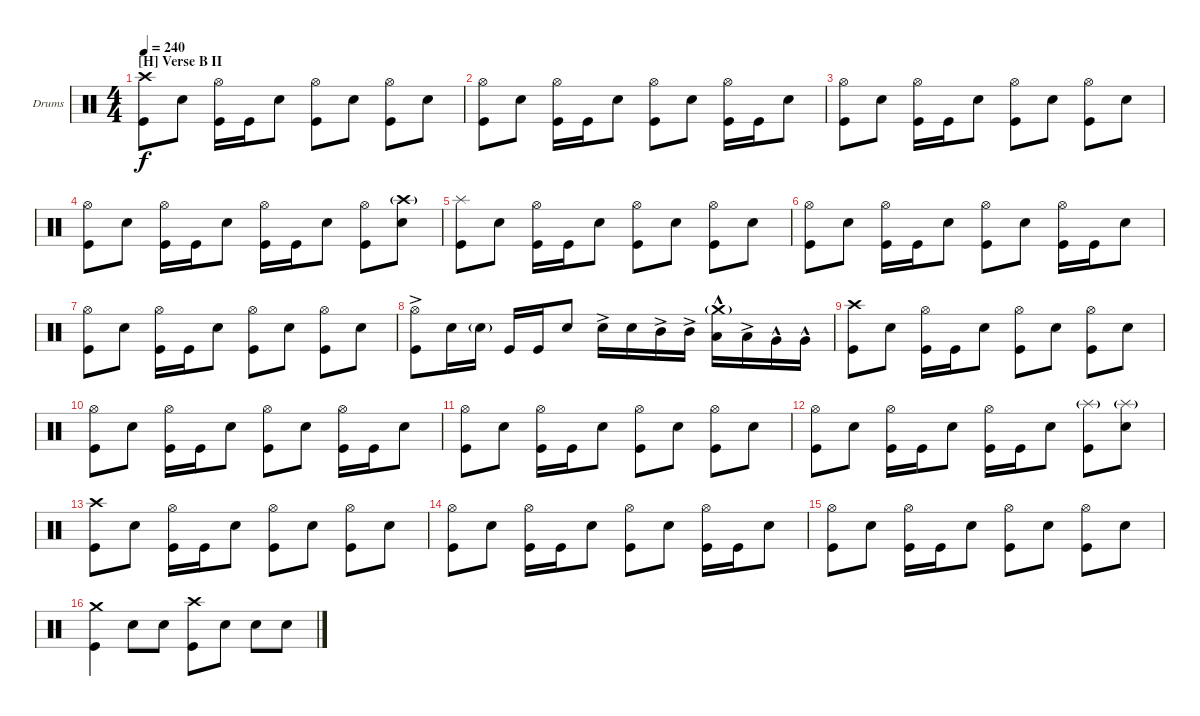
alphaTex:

\defaultSystemsLayout 4
\bracketExtendMode groupsimilarinstruments
\firstSystemTrackNameOrientation horizontal
\otherSystemsTrackNameOrientation horizontal
\track ("Drumkit" "Drums") {instrument percussion}
\staff {score}
\articulation defaults
\ts (4 4)
\section ("H" "Verse B II")
\tempo 240
\clef neutral
\ks c
("Kick (hit)" "Crash high (hit)").8{dy f} "Snare (hit) 2".8 ("Kick (hit)" "Hi-Hat (open)").16 "Kick (hit)".16 "Snare (hit) 2".8 ("Kick (hit)" "Hi-Hat (open)").8 "Snare (hit) 2".8 ("Kick (hit)" "Hi-Hat (open)").8 "Snare (hit) 2".8 |
("Kick (hit)" "Hi-Hat (open)").8 "Snare (hit) 2".8 ("Kick (hit)" "Hi-Hat (open)").16 "Kick (hit)".16 "Snare (hit) 2".8 ("Kick (hit)" "Hi-Hat (open)").8 "Snare (hit) 2".8 ("Kick (hit)" "Hi-Hat (open)").16 "Kick (hit)".16 "Snare (hit) 2".8 |
("Kick (hit)" "Hi-Hat (open)").8 "Snare (hit) 2".8 ("Kick (hit)" "Hi-Hat (open)").16 "Kick (hit)".16 "Snare (hit) 2".8 ("Kick (hit)" "Hi-Hat (open)").8 "Snare (hit) 2".8 ("Kick (hit)" "Hi-Hat (open)").8 "Snare (hit) 2".8 |
("Kick (hit)" "Hi-Hat (open)").8 "Snare (hit) 2".8 ("Kick (hit)" "Hi-Hat (open)").16 "Kick (hit)".16 "Snare (hit) 2".8 ("Kick (hit)" "Hi-Hat (open)").16 "Kick (hit)".16 "Snare (hit) 2".8 ("Kick (hit)" "Hi-Hat (open)").8 ("Snare (hit) 2" "Crash high (hit)"{g}).8 |
("Kick (hit)" "Splash (hit)").8 "Snare (hit) 2".8 ("Kick (hit)" "Hi-Hat (open)").16 "Kick (hit)".16 "Snare (hit) 2".8 ("Kick (hit)" "Hi-Hat (open)").8 "Snare (hit) 2".8 ("Kick (hit)" "Hi-Hat (open)").8 "Snare (hit) 2".8 |
("Kick (hit)" "Hi-Hat (open)").8 "Snare (hit) 2".8 ("Kick (hit)" "Hi-Hat (open)").16 "Kick (hit)".16 "Snare (hit) 2".8 ("Kick (hit)" "Hi-Hat (open)").8 "Snare (hit) 2".8 ("Kick (hit)" "Hi-Hat (open)").16 "Kick (hit)".16 "Snare (hit) 2".8 |
("Kick (hit)" "Hi-Hat (open)").8 "Snare (hit) 2".8 ("Kick (hit)" "Hi-Hat (open)").16 "Kick (hit)".16 "Snare (hit) 2".8 ("Kick (hit)" "Hi-Hat (open)").8 "Snare (hit) 2".8 ("Kick (hit)" "Hi-Hat (open)").8 "Snare (hit) 2".8 |
("Kick (hit)" "Hi-Hat (open)"{ac}).8 "Snare (hit) 2".16 "Snare (hit) 2"{g}.16 "Kick (hit)".16 "Kick (hit)".16 "Snare (hit) 2".8 "Snare (hit) 2"{ac}.16 "Snare (hit) 2".16 "Mid Tom (hit)"{ac}.16 "Mid Tom (hit)"{ac}.16 ("Low Tom (hit)"{hac} "Crash medium (hit)"{g}).16 "Low Tom (hit)"{ac}.16 "Very Low Tom (hit)"{hac}.16 "Very Low Tom (hit)"{hac}.16 |
("Kick (hit)" "Crash high (hit)").8 "Snare (hit) 2".8 ("Kick (hit)" "Hi-Hat (open)").16 "Kick (hit)".16 "Snare (hit) 2".8 ("Kick (hit)" "Hi-Hat (open)").8 "Snare (hit) 2".8 ("Kick (hit)" "Hi-Hat (open)").8 "Snare (hit) 2".8 |
("Kick (hit)" "Hi-Hat (open)").8 "Snare (hit) 2".8 ("Kick (hit)" "Hi-Hat (open)").16 "Kick (hit)".16 "Snare (hit) 2".8 ("Kick (hit)" "Hi-Hat (open)").8 "Snare (hit) 2".8 ("Kick (hit)" "Hi-Hat (open)").16 "Kick (hit)".16 "Snare (hit) 2".8 |
("Kick (hit)" "Hi-Hat (open)").8 "Snare (hit) 2".8 ("Kick (hit)" "Hi-Hat (open)").16 "Kick (hit)".16 "Snare (hit) 2".8 ("Kick (hit)" "Hi-Hat (open)").8 "Snare (hit) 2".8 ("Kick (hit)" "Hi-Hat (open)").8 "Snare (hit) 2".8 |
("Kick (hit)" "Hi-Hat (open)").8 "Snare (hit) 2".8 ("Kick (hit)" "Hi-Hat (open)").16 "Kick (hit)".16 "Snare (hit) 2".8 ("Kick (hit)" "Hi-Hat (open)").16 "Kick (hit)".16 "Snare (hit) 2".8 ("Kick (hit)" "Splash (hit)"{g}).8 ("Snare (hit) 2" "Splash (hit)"{g}).8 |
("Kick (hit)" "Crash high (hit)").8 "Snare (hit) 2".8 ("Kick (hit)" "Hi-Hat (open)").16 "Kick (hit)".16 "Snare (hit) 2".8 ("Kick (hit)" "Hi-Hat (open)").8 "Snare (hit) 2".8 ("Kick (hit)" "Hi-Hat (open)").8 "Snare (hit) 2".8 |
("Kick (hit)" "Hi-Hat (open)").8 "Snare (hit) 2".8 ("Kick (hit)" "Hi-Hat (open)").16 "Kick (hit)".16 "Snare (hit) 2".8 ("Kick (hit)" "Hi-Hat (open)").8 "Snare (hit) 2".8 ("Kick (hit)" "Hi-Hat (open)").16 "Kick (hit)".16 "Snare (hit) 2".8 |
("Kick (hit)" "Hi-Hat (open)").8 "Snare (hit) 2".8 ("Kick (hit)" "Hi-Hat (open)").16 "Kick (hit)".16 "Snare (hit) 2".8 ("Kick (hit)" "Hi-Hat (open)").8 "Snare (hit) 2".8 ("Kick (hit)" "Hi-Hat (open)").8 "Snare (hit) 2".8 |
("Kick (hit)" "Crash medium (hit)").4 "Snare (hit) 2".8 "Snare (hit) 2".8 ("Kick (hit)" "Crash high (hit)").8 "Snare (hit) 2".8 "Snare (hit) 2".8 "Snare (hit) 2".8
